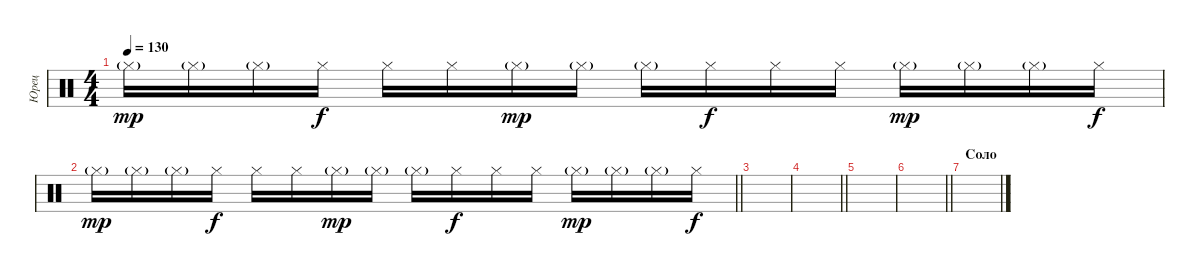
\track ("Юрец" "Юрец") {instrument percussion}
\staff {score}
\articulation defaults
\ts (4 4)
\tempo 130
\clef neutral
\ks c "Hi-Hat (closed)"{g}.16{dy mp} "Hi-Hat (closed)"{g}.16 "Hi-Hat (closed)"{g}.16 "Hi-Hat (closed)".16{dy f} "Hi-Hat (closed)".16 "Hi-Hat (closed)".16 "Hi-Hat (closed)"{g}.16{dy mp} "Hi-Hat (closed)"{g}.16 "Hi-Hat (closed)"{g}.16 "Hi-Hat (closed)".16{dy f} "Hi-Hat (closed)".16 "Hi-Hat (closed)".16 "Hi-Hat (closed)"{g}.16{dy mp} "Hi-Hat (closed)"{g}.16 "Hi-Hat (closed)"{g}.16 "Hi-Hat (closed)".16{dy f}
|
\barLineRight lightlight "Hi-Hat (closed)"{g}.16{dy mp} "Hi-Hat (closed)"{g}.16 "Hi-Hat (closed)"{g}.16 "Hi-Hat (closed)".16{dy f} "Hi-Hat (closed)".16 "Hi-Hat (closed)".16 "Hi-Hat (closed)"{g}.16{dy mp} "Hi-Hat (closed)"{g}.16 "Hi-Hat (closed)"{g}.16 "Hi-Hat (closed)".16{dy f} "Hi-Hat (closed)".16 "Hi-Hat (closed)".16 "Hi-Hat (closed)"{g}.16{dy mp} "Hi-Hat (closed)"{g}.16 "Hi-Hat (closed)"{g}.16 "Hi-Hat (closed)".16{dy f}
|
|
\barLineRight lightlight
|
|
\barLineRight lightlight
|
\section ("" "Соло")
